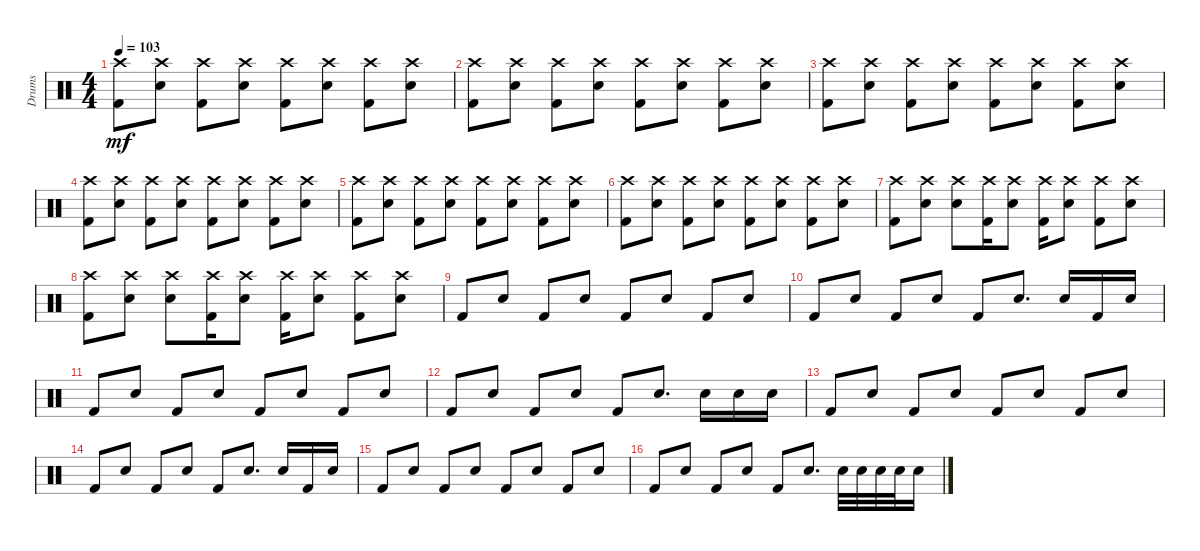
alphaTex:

\track ("Drums" "Drums") {instrument percussion}
\staff {score}
\articulation defaults
\ts (4 4)
\tempo 103
\clef neutral
\ks c
("Crash high (hit)" "Kick (hit) 2").8{dy mf} ("Crash high (hit)" "Snare (hit) 2").8 ("Crash high (hit)" "Kick (hit) 2").8 ("Crash high (hit)" "Snare (hit) 2").8 ("Crash high (hit)" "Kick (hit) 2").8 ("Crash high (hit)" "Snare (hit) 2").8 ("Crash high (hit)" "Kick (hit) 2").8 ("Crash high (hit)" "Snare (hit) 2").8 |
("Crash high (hit)" "Kick (hit) 2").8 ("Crash high (hit)" "Snare (hit) 2").8 ("Crash high (hit)" "Kick (hit) 2").8 ("Crash high (hit)" "Snare (hit) 2").8 ("Crash high (hit)" "Kick (hit) 2").8 ("Crash high (hit)" "Snare (hit) 2").8 ("Crash high (hit)" "Kick (hit) 2").8 ("Crash high (hit)" "Snare (hit) 2").8 |
("Crash high (hit)" "Kick (hit) 2").8 ("Crash high (hit)" "Snare (hit) 2").8 ("Crash high (hit)" "Kick (hit) 2").8 ("Crash high (hit)" "Snare (hit) 2").8 ("Crash high (hit)" "Kick (hit) 2").8 ("Crash high (hit)" "Snare (hit) 2").8 ("Crash high (hit)" "Kick (hit) 2").8 ("Crash high (hit)" "Snare (hit) 2").8 |
("Crash high (hit)" "Kick (hit) 2").8 ("Crash high (hit)" "Snare (hit) 2").8 ("Crash high (hit)" "Kick (hit) 2").8 ("Crash high (hit)" "Snare (hit) 2").8 ("Crash high (hit)" "Kick (hit) 2").8 ("Crash high (hit)" "Snare (hit) 2").8 ("Crash high (hit)" "Kick (hit) 2").8 ("Crash high (hit)" "Snare (hit) 2").8 |
("Crash high (hit)" "Kick (hit) 2").8 ("Crash high (hit)" "Snare (hit) 2").8 ("Crash high (hit)" "Kick (hit) 2").8 ("Crash high (hit)" "Snare (hit) 2").8 ("Crash high (hit)" "Kick (hit) 2").8 ("Crash high (hit)" "Snare (hit) 2").8 ("Crash high (hit)" "Kick (hit) 2").8 ("Crash high (hit)" "Snare (hit) 2").8 |
("Crash high (hit)" "Kick (hit) 2").8 ("Crash high (hit)" "Snare (hit) 2").8 ("Crash high (hit)" "Kick (hit) 2").8 ("Crash high (hit)" "Snare (hit) 2").8 ("Crash high (hit)" "Kick (hit) 2").8 ("Crash high (hit)" "Snare (hit) 2").8 ("Crash high (hit)" "Kick (hit) 2").8 ("Crash high (hit)" "Snare (hit) 2").8 |
("Crash high (hit)" "Kick (hit) 2").8 ("Crash high (hit)" "Snare (hit) 2").8 ("Crash high (hit)" "Snare (hit) 2").8 ("Crash high (hit)" "Kick (hit) 2").16 ("Crash high (hit)" "Snare (hit) 2").8 ("Crash high (hit)" "Kick (hit) 2").16 ("Crash high (hit)" "Snare (hit) 2").8 ("Crash high (hit)" "Kick (hit) 2").8 ("Crash high (hit)" "Snare (hit) 2").8 |
("Crash high (hit)" "Kick (hit) 2").8 ("Crash high (hit)" "Snare (hit) 2").8 ("Crash high (hit)" "Snare (hit) 2").8 ("Crash high (hit)" "Kick (hit) 2").16 ("Crash high (hit)" "Snare (hit) 2").8 ("Crash high (hit)" "Kick (hit) 2").16 ("Crash high (hit)" "Snare (hit) 2").8 ("Crash high (hit)" "Kick (hit) 2").8 ("Crash high (hit)" "Snare (hit) 2").8 |
"Kick (hit) 2".8 "Snare (hit) 2".8 "Kick (hit) 2".8 "Snare (hit) 2".8 "Kick (hit) 2".8 "Snare (hit) 2".8 "Kick (hit) 2".8 "Snare (hit) 2".8 |
"Kick (hit) 2".8 "Snare (hit) 2".8 "Kick (hit) 2".8 "Snare (hit) 2".8 "Kick (hit) 2".8 "Snare (hit) 2".8{d} "Snare (hit) 2".16 "Kick (hit) 2".16 "Snare (hit) 2".16 |
"Kick (hit) 2".8 "Snare (hit) 2".8 "Kick (hit) 2".8 "Snare (hit) 2".8 "Kick (hit) 2".8 "Snare (hit) 2".8 "Kick (hit) 2".8 "Snare (hit) 2".8 |
"Kick (hit) 2".8 "Snare (hit) 2".8 "Kick (hit) 2".8 "Snare (hit) 2".8 "Kick (hit) 2".8 "Snare (hit) 2".8{d} "Snare (hit) 2".16 "Snare (hit) 2".16 "Snare (hit) 2".16 |
"Kick (hit) 2".8 "Snare (hit) 2".8 "Kick (hit) 2".8 "Snare (hit) 2".8 "Kick (hit) 2".8 "Snare (hit) 2".8 "Kick (hit) 2".8 "Snare (hit) 2".8 |
"Kick (hit) 2".8 "Snare (hit) 2".8 "Kick (hit) 2".8 "Snare (hit) 2".8 "Kick (hit) 2".8 "Snare (hit) 2".8{d} "Snare (hit) 2".16 "Kick (hit) 2".16 "Snare (hit) 2".16 |
"Kick (hit) 2".8 "Snare (hit) 2".8 "Kick (hit) 2".8 "Snare (hit) 2".8 "Kick (hit) 2".8 "Snare (hit) 2".8 "Kick (hit) 2".8 "Snare (hit) 2".8 |
"Kick (hit) 2".8 "Snare (hit) 2".8 "Kick (hit) 2".8 "Snare (hit) 2".8 "Kick (hit) 2".8 "Snare (hit) 2".8{d} "Snare (hit) 2".32 "Snare (hit) 2".32 "Snare (hit) 2".32 "Snare (hit) 2".32 "Snare (hit) 2".16
